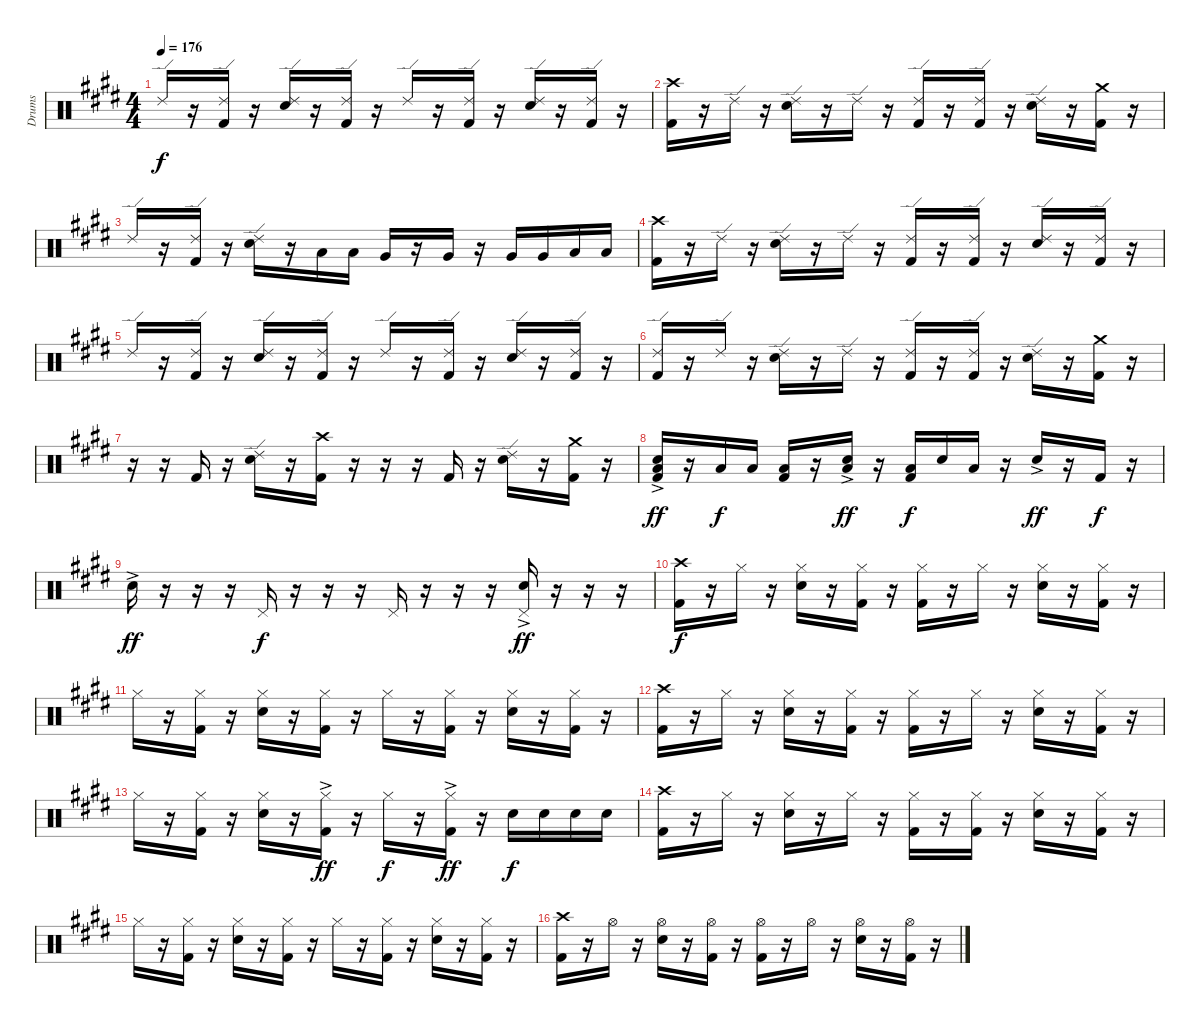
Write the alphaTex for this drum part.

\track ("Drums" "Drums") {instrument percussion}
\staff {score}
\articulation defaults
\ts (4 4)
\tempo 176
\clef neutral
\ks e "Ride (edge) 2".16{dy f}
r.16 ("Ride (edge) 2" "Kick (hit) 2").16 r.16 ("Ride (edge) 2" "Electric Snare (hit)").16 r.16 ("Ride (edge) 2" "Kick (hit) 2").16 r.16 "Ride (edge) 2".16 r.16 ("Ride (edge) 2" "Kick (hit) 2").16 r.16 ("Ride (edge) 2" "Electric Snare (hit)").16 r.16 ("Ride (edge) 2" "Kick (hit) 2").16 r.16 |
("Crash high (hit)" "Kick (hit) 2").16 r.16 "Ride (edge) 2".16 r.16 ("Ride (edge) 2" "Electric Snare (hit)").16 r.16 "Ride (edge) 2".16 r.16 ("Ride (edge) 2" "Kick (hit) 2").16 r.16 ("Ride (edge) 2" "Kick (hit) 2").16 r.16 ("Ride (edge) 2" "Electric Snare (hit)").16 r.16 ("Crash medium (hit)" "Kick (hit) 2").16 r.16 |
"Ride (edge) 2".16 r.16 ("Ride (edge) 2" "Kick (hit) 2").16 r.16 ("Ride (edge) 2" "Electric Snare (hit)").16 r.16 "Low Tom (hit)".16 "Low Tom (hit)".16 "Very Low Tom (hit)".16 r.16 "Very Low Tom (hit)".16 r.16 "Very Low Tom (hit)".16 "Very Low Tom (hit)".16 "Low Floor Tom (hit)".16 "Low Floor Tom (hit)".16 |
("Crash high (hit)" "Kick (hit) 2").16 r.16 "Ride (edge) 2".16 r.16 ("Ride (edge) 2" "Electric Snare (hit)").16 r.16 "Ride (edge) 2".16 r.16 ("Ride (edge) 2" "Kick (hit) 2").16 r.16 ("Ride (edge) 2" "Kick (hit) 2").16 r.16 ("Ride (edge) 2" "Electric Snare (hit)").16 r.16 ("Ride (edge) 2" "Kick (hit) 2").16 r.16 |
"Ride (edge) 2".16 r.16 ("Ride (edge) 2" "Kick (hit) 2").16 r.16 ("Ride (edge) 2" "Electric Snare (hit)").16 r.16 ("Ride (edge) 2" "Kick (hit) 2").16 r.16 "Ride (edge) 2".16 r.16 ("Ride (edge) 2" "Kick (hit) 2").16 r.16 ("Ride (edge) 2" "Electric Snare (hit)").16 r.16 ("Ride (edge) 2" "Kick (hit) 2").16 r.16 |
("Ride (edge) 2" "Kick (hit) 2").16 r.16 "Ride (edge) 2".16 r.16 ("Ride (edge) 2" "Electric Snare (hit)").16 r.16 "Ride (edge) 2".16 r.16 ("Ride (edge) 2" "Kick (hit) 2").16 r.16 ("Ride (edge) 2" "Kick (hit) 2").16 r.16 ("Ride (edge) 2" "Electric Snare (hit)").16 r.16 ("Crash medium (hit)" "Kick (hit) 2").16 r.16 |
r.16 r.16 "Kick (hit) 2".16 r.16 ("Ride (edge) 2" "Electric Snare (hit)").16 r.16 ("Crash high (hit)" "Kick (hit) 2").16 r.16 r.16 r.16 "Kick (hit) 2".16 r.16 ("Ride (edge) 2" "Electric Snare (hit)").16 r.16 ("Crash medium (hit)" "Kick (hit) 2").16 r.16 |
("Low Floor Tom (hit)"{ac} "Electric Snare (hit)"{ac} "Kick (hit) 2").16{dy ff} r.16 "Low Floor Tom (hit)".16{dy f} "Low Floor Tom (hit)".16 ("Low Floor Tom (hit)" "Kick (hit) 2").16 r.16 ("Low Floor Tom (hit)"{ac} "Electric Snare (hit)"{ac}).16{dy ff} r.16 ("Low Floor Tom (hit)" "Kick (hit) 2").16{dy f} "Electric Snare (hit)".16 "Low Floor Tom (hit)".16 r.16 "Electric Snare (hit)"{ac}.16{dy ff} r.16 "Kick (hit) 2".16{dy f} r.16 |
"Electric Snare (hit)"{ac}.16{dy ff} r.16 r.16 r.16 "Pedal Hi-Hat (hit)".16{dy f} r.16 r.16 r.16 "Pedal Hi-Hat (hit)".16 r.16 r.16 r.16 ("Pedal Hi-Hat (hit)" "Electric Snare (hit)"{ac}).16{dy ff} r.16 r.16 r.16 |
("Crash high (hit)" "Kick (hit) 2").16{dy f} r.16 "Hi-Hat (closed)".16 r.16 ("Hi-Hat (closed)" "Electric Snare (hit)").16 r.16 ("Hi-Hat (closed)" "Kick (hit) 2").16 r.16 ("Hi-Hat (closed)" "Kick (hit) 2").16 r.16 "Hi-Hat (closed)".16 r.16 ("Hi-Hat (closed)" "Electric Snare (hit)").16 r.16 ("Hi-Hat (closed)" "Kick (hit) 2").16 r.16 |
"Hi-Hat (closed)".16 r.16 ("Hi-Hat (closed)" "Kick (hit) 2").16 r.16 ("Hi-Hat (closed)" "Electric Snare (hit)").16 r.16 ("Hi-Hat (closed)" "Kick (hit) 2").16 r.16 "Hi-Hat (closed)".16 r.16 ("Hi-Hat (closed)" "Kick (hit) 2").16 r.16 ("Hi-Hat (closed)" "Electric Snare (hit)").16 r.16 ("Hi-Hat (closed)" "Kick (hit) 2").16 r.16 |
("Crash high (hit)" "Kick (hit) 2").16 r.16 "Hi-Hat (closed)".16 r.16 ("Hi-Hat (closed)" "Electric Snare (hit)").16 r.16 ("Hi-Hat (closed)" "Kick (hit) 2").16 r.16 ("Hi-Hat (closed)" "Kick (hit) 2").16 r.16 "Hi-Hat (closed)".16 r.16 ("Hi-Hat (closed)" "Electric Snare (hit)").16 r.16 ("Hi-Hat (closed)" "Kick (hit) 2").16 r.16 |
"Hi-Hat (closed)".16 r.16 ("Hi-Hat (closed)" "Kick (hit) 2").16 r.16 ("Hi-Hat (closed)" "Electric Snare (hit)").16 r.16 ("Hi-Hat (closed)"{ac} "Kick (hit) 2").16{dy ff} r.16 "Hi-Hat (closed)".16{dy f} r.16 ("Hi-Hat (closed)"{ac} "Kick (hit) 2").16{dy ff} r.16 "Electric Snare (hit)".16{dy f} "Electric Snare (hit)".16 "Electric Snare (hit)".16 "Electric Snare (hit)".16 |
("Crash high (hit)" "Kick (hit) 2").16 r.16 "Hi-Hat (closed)".16 r.16 ("Hi-Hat (closed)" "Electric Snare (hit)").16 r.16 "Hi-Hat (closed)".16 r.16 ("Hi-Hat (closed)" "Kick (hit) 2").16 r.16 ("Hi-Hat (closed)" "Kick (hit) 2").16 r.16 ("Hi-Hat (closed)" "Electric Snare (hit)").16 r.16 ("Hi-Hat (closed)" "Kick (hit) 2").16 r.16 |
"Hi-Hat (closed)".16 r.16 ("Hi-Hat (closed)" "Kick (hit) 2").16 r.16 ("Hi-Hat (closed)" "Electric Snare (hit)").16 r.16 ("Hi-Hat (closed)" "Kick (hit) 2").16 r.16 "Hi-Hat (closed)".16 r.16 ("Hi-Hat (closed)" "Kick (hit) 2").16 r.16 ("Hi-Hat (closed)" "Electric Snare (hit)").16 r.16 ("Hi-Hat (closed)" "Kick (hit) 2").16 r.16 |
("Crash high (hit)" "Kick (hit) 2").16 r.16 "Hi-Hat (open)".16 r.16 ("Hi-Hat (open)" "Electric Snare (hit)").16 r.16 ("Hi-Hat (open)" "Kick (hit) 2").16 r.16 ("Hi-Hat (open)" "Kick (hit) 2").16 r.16 "Hi-Hat (open)".16 r.16 ("Hi-Hat (open)" "Electric Snare (hit)").16 r.16 ("Hi-Hat (open)" "Kick (hit) 2").16 r.16
